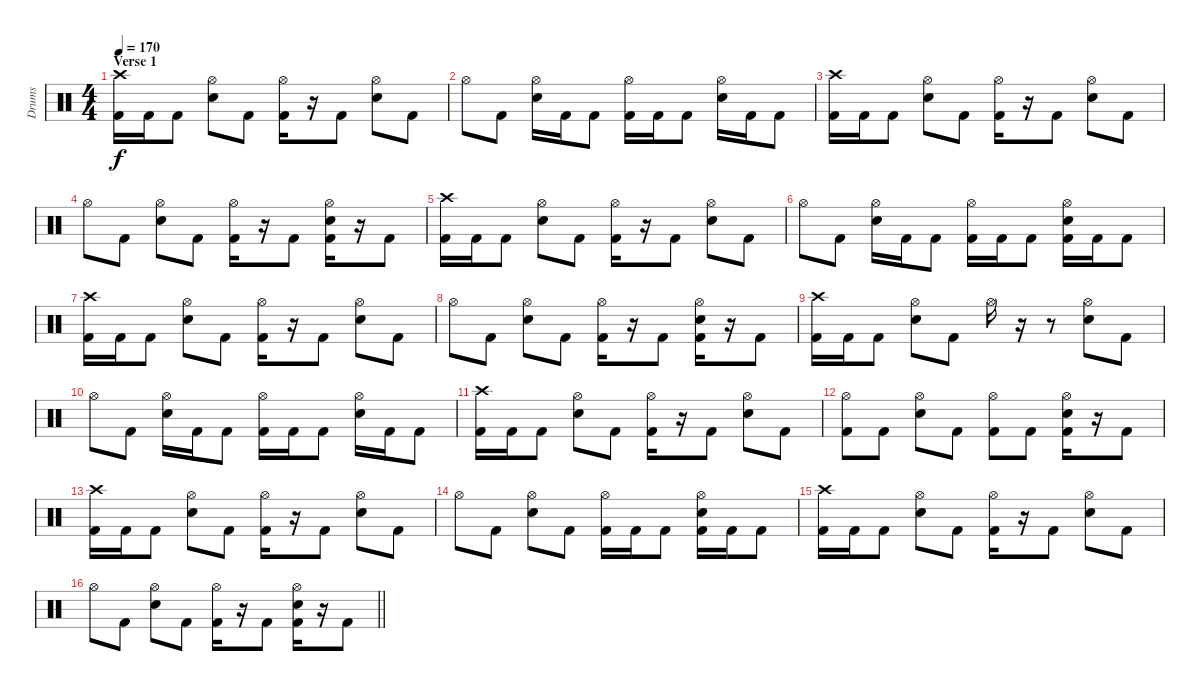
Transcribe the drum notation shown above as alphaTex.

\track ("Drums" "Drums") {instrument percussion}
\staff {score}
\articulation defaults
\ts (4 4)
\section ("" "Verse 1")
\tempo 170
\clef neutral
\ks c
("Kick (hit) 2" "Crash high (hit)").16{dy f} "Kick (hit) 2".16 "Kick (hit) 2".8 ("Electric Snare (hit)" "Hi-Hat (open)").8 "Kick (hit) 2".8 ("Kick (hit) 2" "Hi-Hat (open)").16 r.16 "Kick (hit) 2".8 ("Electric Snare (hit)" "Hi-Hat (open)").8 "Kick (hit) 2".8 |
"Hi-Hat (open)".8 "Kick (hit) 2".8 ("Hi-Hat (open)" "Electric Snare (hit)").16 "Kick (hit) 2".16 "Kick (hit) 2".8 ("Hi-Hat (open)" "Kick (hit) 2").16 "Kick (hit) 2".16 "Kick (hit) 2".8 ("Hi-Hat (open)" "Electric Snare (hit)").16 "Kick (hit) 2".16 "Kick (hit) 2".8 |
("Kick (hit) 2" "Crash high (hit)").16 "Kick (hit) 2".16 "Kick (hit) 2".8 ("Electric Snare (hit)" "Hi-Hat (open)").8 "Kick (hit) 2".8 ("Kick (hit) 2" "Hi-Hat (open)").16 r.16 "Kick (hit) 2".8 ("Electric Snare (hit)" "Hi-Hat (open)").8 "Kick (hit) 2".8 |
"Hi-Hat (open)".8 "Kick (hit) 2".8 ("Electric Snare (hit)" "Hi-Hat (open)").8 "Kick (hit) 2".8 ("Kick (hit) 2" "Hi-Hat (open)").16 r.16 "Kick (hit) 2".8 ("Electric Snare (hit)" "Kick (hit) 2" "Hi-Hat (open)").16 r.16 "Kick (hit) 2".8 |
("Kick (hit) 2" "Crash high (hit)").16 "Kick (hit) 2".16 "Kick (hit) 2".8 ("Electric Snare (hit)" "Hi-Hat (open)").8 "Kick (hit) 2".8 ("Kick (hit) 2" "Hi-Hat (open)").16 r.16 "Kick (hit) 2".8 ("Electric Snare (hit)" "Hi-Hat (open)").8 "Kick (hit) 2".8 |
"Hi-Hat (open)".8 "Kick (hit) 2".8 ("Electric Snare (hit)" "Hi-Hat (open)").16 "Kick (hit) 2".16 "Kick (hit) 2".8 ("Kick (hit) 2" "Hi-Hat (open)").16 "Kick (hit) 2".16 "Kick (hit) 2".8 ("Electric Snare (hit)" "Kick (hit) 2" "Hi-Hat (open)").16 "Kick (hit) 2".16 "Kick (hit) 2".8 |
("Kick (hit) 2" "Crash high (hit)").16 "Kick (hit) 2".16 "Kick (hit) 2".8 ("Electric Snare (hit)" "Hi-Hat (open)").8 "Kick (hit) 2".8 ("Kick (hit) 2" "Hi-Hat (open)").16 r.16 "Kick (hit) 2".8 ("Electric Snare (hit)" "Hi-Hat (open)").8 "Kick (hit) 2".8 |
"Hi-Hat (open)".8 "Kick (hit) 2".8 ("Electric Snare (hit)" "Hi-Hat (open)").8 "Kick (hit) 2".8 ("Kick (hit) 2" "Hi-Hat (open)").16 r.16 "Kick (hit) 2".8 ("Electric Snare (hit)" "Kick (hit) 2" "Hi-Hat (open)").16 r.16 "Kick (hit) 2".8 |
("Kick (hit) 2" "Crash high (hit)").16 "Kick (hit) 2".16 "Kick (hit) 2".8 ("Electric Snare (hit)" "Hi-Hat (open)").8 "Kick (hit) 2".8 "Hi-Hat (open)".16 r.16 r.8 ("Hi-Hat (open)" "Electric Snare (hit)").8 "Kick (hit) 2".8 |
"Hi-Hat (open)".8 "Kick (hit) 2".8 ("Hi-Hat (open)" "Electric Snare (hit)").16 "Kick (hit) 2".16 "Kick (hit) 2".8 ("Hi-Hat (open)" "Kick (hit) 2").16 "Kick (hit) 2".16 "Kick (hit) 2".8 ("Hi-Hat (open)" "Electric Snare (hit)").16 "Kick (hit) 2".16 "Kick (hit) 2".8 |
("Kick (hit) 2" "Crash high (hit)").16 "Kick (hit) 2".16 "Kick (hit) 2".8 ("Electric Snare (hit)" "Hi-Hat (open)").8 "Kick (hit) 2".8 ("Kick (hit) 2" "Hi-Hat (open)").16 r.16 "Kick (hit) 2".8 ("Electric Snare (hit)" "Hi-Hat (open)").8 "Kick (hit) 2".8 |
("Hi-Hat (open)" "Kick (hit) 2").8 "Kick (hit) 2".8 ("Hi-Hat (open)" "Electric Snare (hit)").8 "Kick (hit) 2".8 ("Hi-Hat (open)" "Kick (hit) 2").8 "Kick (hit) 2".8 ("Hi-Hat (open)" "Electric Snare (hit)" "Kick (hit) 2").16 r.16 "Kick (hit) 2".8 |
("Kick (hit) 2" "Crash high (hit)").16 "Kick (hit) 2".16 "Kick (hit) 2".8 ("Electric Snare (hit)" "Hi-Hat (open)").8 "Kick (hit) 2".8 ("Kick (hit) 2" "Hi-Hat (open)").16 r.16 "Kick (hit) 2".8 ("Electric Snare (hit)" "Hi-Hat (open)").8 "Kick (hit) 2".8 |
"Hi-Hat (open)".8 "Kick (hit) 2".8 ("Electric Snare (hit)" "Hi-Hat (open)").8 "Kick (hit) 2".8 ("Kick (hit) 2" "Hi-Hat (open)").16 "Kick (hit) 2".16 "Kick (hit) 2".8 ("Electric Snare (hit)" "Kick (hit) 2" "Hi-Hat (open)").16 "Kick (hit) 2".16 "Kick (hit) 2".8 |
("Kick (hit) 2" "Crash high (hit)").16 "Kick (hit) 2".16 "Kick (hit) 2".8 ("Electric Snare (hit)" "Hi-Hat (open)").8 "Kick (hit) 2".8 ("Kick (hit) 2" "Hi-Hat (open)").16 r.16 "Kick (hit) 2".8 ("Electric Snare (hit)" "Hi-Hat (open)").8 "Kick (hit) 2".8 |
\barLineRight lightlight "Hi-Hat (open)".8 "Kick (hit) 2".8
("Electric Snare (hit)" "Hi-Hat (open)").8 "Kick (hit) 2".8 ("Kick (hit) 2" "Hi-Hat (open)").16 r.16 "Kick (hit) 2".8 ("Electric Snare (hit)" "Kick (hit) 2" "Hi-Hat (open)").16 r.16 "Kick (hit) 2".8
